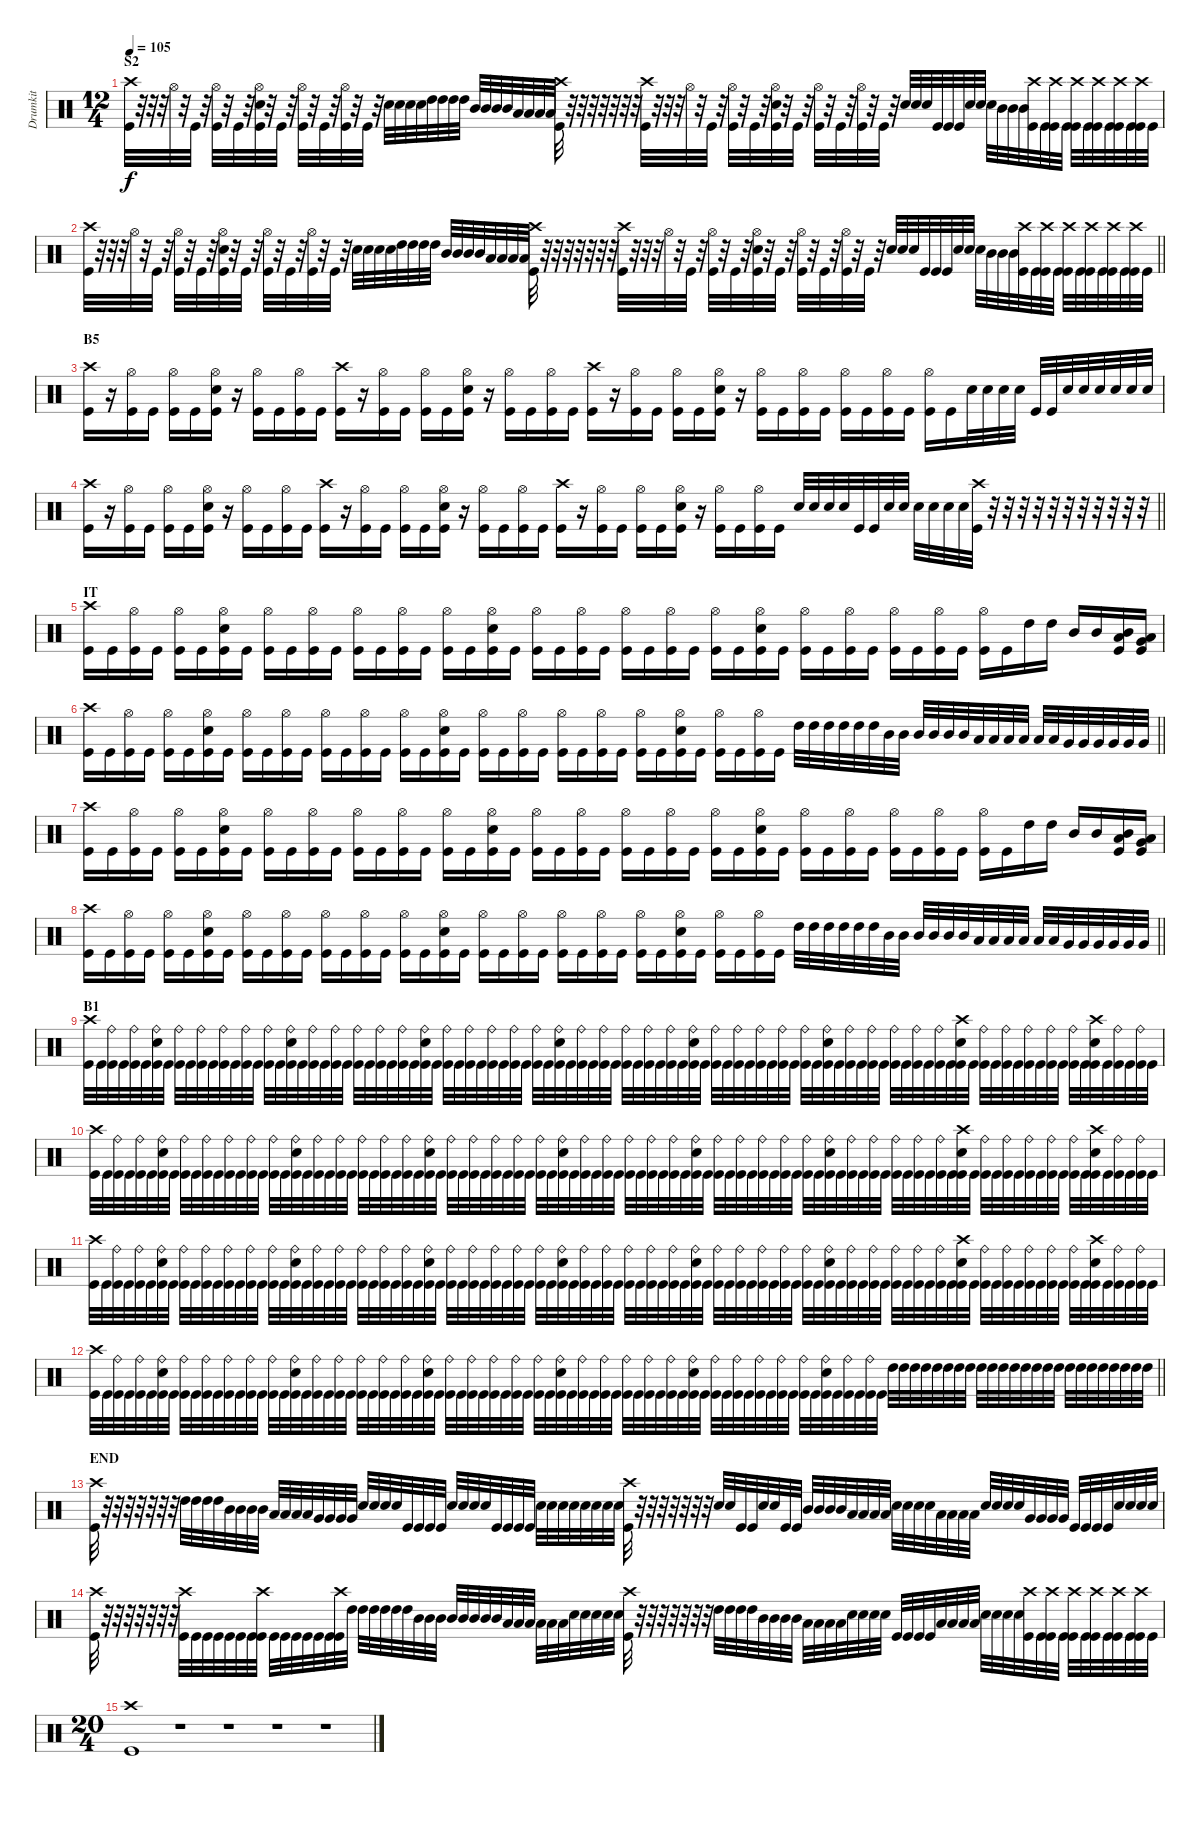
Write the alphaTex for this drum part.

\track ("Drumkit" "Drumkit") {instrument percussion}
\staff {score}
\articulation defaults
\ts (12 4)
\section ("" "S2")
\tempo 105
\clef neutral
\ks c
("Crash high (hit)" "Kick (hit)").32{dy f} r.32 r.32 r.32 "Hi-Hat (open)".32 r.32 "Kick (hit)".32 r.32 ("Hi-Hat (open)" "Kick (hit)").32 r.32 "Kick (hit)".32 r.32 ("Hi-Hat (open)" "Snare (hit) 2" "Kick (hit)").32 r.32 "Kick (hit)".32 r.32 ("Hi-Hat (open)" "Kick (hit)").32 r.32 "Kick (hit)".32 r.32 ("Hi-Hat (open)" "Kick (hit)").32 r.32 "Kick (hit)".32 r.32 "Snare (hit) 2".32 "Snare (hit) 2".32 "Snare (hit) 2".32 "Snare (hit) 2".32 "High Tom (hit)".32 "High Tom (hit)".32 "High Tom (hit)".32 "High Tom (hit)".32 "Mid Tom (hit)".32 "Mid Tom (hit)".32 "Mid Tom (hit)".32 "Mid Tom (hit)".32 "Low Tom (hit)".32 "Low Tom (hit)".32 "Low Tom (hit)".32 "Low Tom (hit)".32 ("Crash high (hit)" "Kick (hit)").32 r.32 r.32 r.32 r.32 r.32 r.32 r.32 ("Crash high (hit)" "Kick (hit)").32 r.32 r.32 r.32 "Hi-Hat (open)".32 r.32 "Kick (hit)".32 r.32 ("Hi-Hat (open)" "Kick (hit)").32 r.32 "Kick (hit)".32 r.32 ("Hi-Hat (open)" "Snare (hit) 2" "Kick (hit)").32 r.32 "Kick (hit)".32 r.32 ("Hi-Hat (open)" "Kick (hit)").32 r.32 "Kick (hit)".32 r.32 ("Hi-Hat (open)" "Kick (hit)").32 r.32 "Kick (hit)".32 r.32 "Snare (hit) 2".32 "Snare (hit) 2".32 "Snare (hit) 2".32 "Kick (hit)".32 "Kick (hit)".32 "Kick (hit)".32 "Snare (hit) 2".32 "Snare (hit) 2".32 "Snare (hit) 2".32 "Mid Tom (hit)".32 "Mid Tom (hit)".32 "Mid Tom (hit)".32 ("Crash high (hit)" "Kick (hit)").32 "Kick (hit)".32 ("Crash high (hit)" "Kick (hit)").32 "Kick (hit)".32 ("Crash high (hit)" "Kick (hit)").32 "Kick (hit)".32 ("Crash high (hit)" "Kick (hit)").32 "Kick (hit)".32 ("Crash high (hit)" "Kick (hit)").32 "Kick (hit)".32 ("Crash high (hit)" "Kick (hit)").32 "Kick (hit)".32 |
\barLineRight lightlight
("Crash high (hit)" "Kick (hit)").32 r.32 r.32 r.32 "Hi-Hat (open)".32 r.32 "Kick (hit)".32 r.32 ("Hi-Hat (open)" "Kick (hit)").32 r.32 "Kick (hit)".32 r.32 ("Hi-Hat (open)" "Snare (hit) 2" "Kick (hit)").32 r.32 "Kick (hit)".32 r.32 ("Hi-Hat (open)" "Kick (hit)").32 r.32 "Kick (hit)".32 r.32 ("Hi-Hat (open)" "Kick (hit)").32 r.32 "Kick (hit)".32 r.32 "Snare (hit) 2".32 "Snare (hit) 2".32 "Snare (hit) 2".32 "Snare (hit) 2".32 "High Tom (hit)".32 "High Tom (hit)".32 "High Tom (hit)".32 "High Tom (hit)".32 "Mid Tom (hit)".32 "Mid Tom (hit)".32 "Mid Tom (hit)".32 "Mid Tom (hit)".32 "Low Tom (hit)".32 "Low Tom (hit)".32 "Low Tom (hit)".32 "Low Tom (hit)".32 ("Crash high (hit)" "Kick (hit)").32 r.32 r.32 r.32 r.32 r.32 r.32 r.32 ("Crash high (hit)" "Kick (hit)").32 r.32 r.32 r.32 "Hi-Hat (open)".32 r.32 "Kick (hit)".32 r.32 ("Hi-Hat (open)" "Kick (hit)").32 r.32 "Kick (hit)".32 r.32 ("Hi-Hat (open)" "Snare (hit) 2" "Kick (hit)").32 r.32 "Kick (hit)".32 r.32 ("Hi-Hat (open)" "Kick (hit)").32 r.32 "Kick (hit)".32 r.32 ("Hi-Hat (open)" "Kick (hit)").32 r.32 "Kick (hit)".32 r.32 "Snare (hit) 2".32 "Snare (hit) 2".32 "Snare (hit) 2".32 "Kick (hit)".32 "Kick (hit)".32 "Kick (hit)".32 "Snare (hit) 2".32 "Snare (hit) 2".32 "Snare (hit) 2".32 "Mid Tom (hit)".32 "Mid Tom (hit)".32 "Mid Tom (hit)".32 ("Crash high (hit)" "Kick (hit)").32 "Kick (hit)".32 ("Crash high (hit)" "Kick (hit)").32 "Kick (hit)".32 ("Crash high (hit)" "Kick (hit)").32 "Kick (hit)".32 ("Crash high (hit)" "Kick (hit)").32 "Kick (hit)".32 ("Crash high (hit)" "Kick (hit)").32 "Kick (hit)".32 ("Crash high (hit)" "Kick (hit)").32 "Kick (hit)".32 |
\section ("" "B5")
("Crash high (hit)" "Kick (hit)").16 r.16 ("Hi-Hat (open)" "Kick (hit)").16 "Kick (hit)".16 ("Hi-Hat (open)" "Kick (hit)").16 "Kick (hit)".16 ("Hi-Hat (open)" "Snare (hit) 2" "Kick (hit)").16 r.16 ("Hi-Hat (open)" "Kick (hit)").16 "Kick (hit)".16 ("Hi-Hat (open)" "Kick (hit)").16 "Kick (hit)".16 ("Crash high (hit)" "Kick (hit)").16 r.16 ("Hi-Hat (open)" "Kick (hit)").16 "Kick (hit)".16 ("Hi-Hat (open)" "Kick (hit)").16 "Kick (hit)".16 ("Hi-Hat (open)" "Snare (hit) 2" "Kick (hit)").16 r.16 ("Hi-Hat (open)" "Kick (hit)").16 "Kick (hit)".16 ("Hi-Hat (open)" "Kick (hit)").16 "Kick (hit)".16 ("Crash high (hit)" "Kick (hit)").16 r.16 ("Hi-Hat (open)" "Kick (hit)").16 "Kick (hit)".16 ("Hi-Hat (open)" "Kick (hit)").16 "Kick (hit)".16 ("Hi-Hat (open)" "Snare (hit) 2" "Kick (hit)").16 r.16 ("Hi-Hat (open)" "Kick (hit)").16 "Kick (hit)".16 ("Hi-Hat (open)" "Kick (hit)").16 "Kick (hit)".16 ("Hi-Hat (open)" "Kick (hit)").16 "Kick (hit)".16 ("Hi-Hat (open)" "Kick (hit)").16 "Kick (hit)".16 ("Hi-Hat (open)" "Kick (hit)").16 "Kick (hit)".16 "Snare (hit) 2".32 "Snare (hit) 2".32 "Snare (hit) 2".32 "Snare (hit) 2".32 "Kick (hit)".32 "Kick (hit)".32 "Snare (hit) 2".32 "Snare (hit) 2".32 "Snare (hit) 2".32 "Snare (hit) 2".32 "Snare (hit) 2".32 "Snare (hit) 2".32 |
\barLineRight lightlight
("Crash high (hit)" "Kick (hit)").16 r.16 ("Hi-Hat (open)" "Kick (hit)").16 "Kick (hit)".16 ("Hi-Hat (open)" "Kick (hit)").16 "Kick (hit)".16 ("Hi-Hat (open)" "Snare (hit) 2" "Kick (hit)").16 r.16 ("Hi-Hat (open)" "Kick (hit)").16 "Kick (hit)".16 ("Hi-Hat (open)" "Kick (hit)").16 "Kick (hit)".16 ("Crash high (hit)" "Kick (hit)").16 r.16 ("Hi-Hat (open)" "Kick (hit)").16 "Kick (hit)".16 ("Hi-Hat (open)" "Kick (hit)").16 "Kick (hit)".16 ("Hi-Hat (open)" "Snare (hit) 2" "Kick (hit)").16 r.16 ("Hi-Hat (open)" "Kick (hit)").16 "Kick (hit)".16 ("Hi-Hat (open)" "Kick (hit)").16 "Kick (hit)".16 ("Crash high (hit)" "Kick (hit)").16 r.16 ("Hi-Hat (open)" "Kick (hit)").16 "Kick (hit)".16 ("Hi-Hat (open)" "Kick (hit)").16 "Kick (hit)".16 ("Hi-Hat (open)" "Snare (hit) 2" "Kick (hit)").16 r.16 ("Hi-Hat (open)" "Kick (hit)").16 "Kick (hit)".16 ("Hi-Hat (open)" "Kick (hit)").16 "Kick (hit)".16 "Snare (hit) 2".32 "Snare (hit) 2".32 "Snare (hit) 2".32 "Snare (hit) 2".32 "Kick (hit)".32 "Kick (hit)".32 "Snare (hit) 2".32 "Snare (hit) 2".32 "Snare (hit) 2".32 "Snare (hit) 2".32 "Snare (hit) 2".32 "Snare (hit) 2".32 ("Crash high (hit)" "Kick (hit)").32 r.32 r.32 r.32 r.32 r.32 r.32 r.32 r.32 r.32 r.32 r.32 |
\section ("" "IT")
("Crash high (hit)" "Kick (hit)").16 "Kick (hit)".16 ("Hi-Hat (open)" "Kick (hit)").16 "Kick (hit)".16 ("Hi-Hat (open)" "Kick (hit)").16 "Kick (hit)".16 ("Hi-Hat (open)" "Snare (hit) 2" "Kick (hit)").16 "Kick (hit)".16 ("Hi-Hat (open)" "Kick (hit)").16 "Kick (hit)".16 ("Hi-Hat (open)" "Kick (hit)").16 "Kick (hit)".16 ("Hi-Hat (open)" "Kick (hit)").16 "Kick (hit)".16 ("Hi-Hat (open)" "Kick (hit)").16 "Kick (hit)".16 ("Hi-Hat (open)" "Kick (hit)").16 "Kick (hit)".16 ("Hi-Hat (open)" "Snare (hit) 2" "Kick (hit)").16 "Kick (hit)".16 ("Hi-Hat (open)" "Kick (hit)").16 "Kick (hit)".16 ("Hi-Hat (open)" "Kick (hit)").16 "Kick (hit)".16 ("Hi-Hat (open)" "Kick (hit)").16 "Kick (hit)".16 ("Hi-Hat (open)" "Kick (hit)").16 "Kick (hit)".16 ("Hi-Hat (open)" "Kick (hit)").16 "Kick (hit)".16 ("Hi-Hat (open)" "Snare (hit) 2" "Kick (hit)").16 "Kick (hit)".16 ("Hi-Hat (open)" "Kick (hit)").16 "Kick (hit)".16 ("Hi-Hat (open)" "Kick (hit)").16 "Kick (hit)".16 ("Hi-Hat (open)" "Kick (hit)").16 "Kick (hit)".16 ("Hi-Hat (open)" "Kick (hit)").16 "Kick (hit)".16 ("Hi-Hat (open)" "Kick (hit)").16 "Kick (hit)".16 "High Tom (hit)".16 "High Tom (hit)".16 "Mid Tom (hit)".16 "Mid Tom (hit)".16 ("Mid Tom (hit)" "Low Tom (hit)" "Kick (hit)").16 ("Low Tom (hit)" "Very Low Tom (hit)" "Kick (hit)").16 |
\barLineRight lightlight
("Crash high (hit)" "Kick (hit)").16 "Kick (hit)".16 ("Hi-Hat (open)" "Kick (hit)").16 "Kick (hit)".16 ("Hi-Hat (open)" "Kick (hit)").16 "Kick (hit)".16 ("Hi-Hat (open)" "Snare (hit) 2" "Kick (hit)").16 "Kick (hit)".16 ("Hi-Hat (open)" "Kick (hit)").16 "Kick (hit)".16 ("Hi-Hat (open)" "Kick (hit)").16 "Kick (hit)".16 ("Hi-Hat (open)" "Kick (hit)").16 "Kick (hit)".16 ("Hi-Hat (open)" "Kick (hit)").16 "Kick (hit)".16 ("Hi-Hat (open)" "Kick (hit)").16 "Kick (hit)".16 ("Hi-Hat (open)" "Snare (hit) 2" "Kick (hit)").16 "Kick (hit)".16 ("Hi-Hat (open)" "Kick (hit)").16 "Kick (hit)".16 ("Hi-Hat (open)" "Kick (hit)").16 "Kick (hit)".16 ("Hi-Hat (open)" "Kick (hit)").16 "Kick (hit)".16 ("Hi-Hat (open)" "Kick (hit)").16 "Kick (hit)".16 ("Hi-Hat (open)" "Kick (hit)").16 "Kick (hit)".16 ("Hi-Hat (open)" "Snare (hit) 2" "Kick (hit)").16 "Kick (hit)".16 ("Hi-Hat (open)" "Kick (hit)").16 "Kick (hit)".16 ("Hi-Hat (open)" "Kick (hit)").16 "Kick (hit)".16 "High Tom (hit)".32 "High Tom (hit)".32 "High Tom (hit)".32 "High Tom (hit)".32 "High Tom (hit)".32 "High Tom (hit)".32 "Mid Tom (hit)".32 "Mid Tom (hit)".32 "Mid Tom (hit)".32 "Mid Tom (hit)".32 "Mid Tom (hit)".32 "Mid Tom (hit)".32 "Low Tom (hit)".32 "Low Tom (hit)".32 "Low Tom (hit)".32 "Low Tom (hit)".32 "Low Tom (hit)".32 "Low Tom (hit)".32 "Very Low Tom (hit)".32 "Very Low Tom (hit)".32 "Very Low Tom (hit)".32 "Very Low Tom (hit)".32 "Very Low Tom (hit)".32 "Very Low Tom (hit)".32 |
("Crash high (hit)" "Kick (hit)").16 "Kick (hit)".16 ("Hi-Hat (open)" "Kick (hit)").16 "Kick (hit)".16 ("Hi-Hat (open)" "Kick (hit)").16 "Kick (hit)".16 ("Hi-Hat (open)" "Snare (hit) 2" "Kick (hit)").16 "Kick (hit)".16 ("Hi-Hat (open)" "Kick (hit)").16 "Kick (hit)".16 ("Hi-Hat (open)" "Kick (hit)").16 "Kick (hit)".16 ("Hi-Hat (open)" "Kick (hit)").16 "Kick (hit)".16 ("Hi-Hat (open)" "Kick (hit)").16 "Kick (hit)".16 ("Hi-Hat (open)" "Kick (hit)").16 "Kick (hit)".16 ("Hi-Hat (open)" "Snare (hit) 2" "Kick (hit)").16 "Kick (hit)".16 ("Hi-Hat (open)" "Kick (hit)").16 "Kick (hit)".16 ("Hi-Hat (open)" "Kick (hit)").16 "Kick (hit)".16 ("Hi-Hat (open)" "Kick (hit)").16 "Kick (hit)".16 ("Hi-Hat (open)" "Kick (hit)").16 "Kick (hit)".16 ("Hi-Hat (open)" "Kick (hit)").16 "Kick (hit)".16 ("Hi-Hat (open)" "Snare (hit) 2" "Kick (hit)").16 "Kick (hit)".16 ("Hi-Hat (open)" "Kick (hit)").16 "Kick (hit)".16 ("Hi-Hat (open)" "Kick (hit)").16 "Kick (hit)".16 ("Hi-Hat (open)" "Kick (hit)").16 "Kick (hit)".16 ("Hi-Hat (open)" "Kick (hit)").16 "Kick (hit)".16 ("Hi-Hat (open)" "Kick (hit)").16 "Kick (hit)".16 "High Tom (hit)".16 "High Tom (hit)".16 "Mid Tom (hit)".16 "Mid Tom (hit)".16 ("Mid Tom (hit)" "Low Tom (hit)" "Kick (hit)").16 ("Low Tom (hit)" "Very Low Tom (hit)" "Kick (hit)").16 |
\barLineRight lightlight
("Crash high (hit)" "Kick (hit)").16 "Kick (hit)".16 ("Hi-Hat (open)" "Kick (hit)").16 "Kick (hit)".16 ("Hi-Hat (open)" "Kick (hit)").16 "Kick (hit)".16 ("Hi-Hat (open)" "Snare (hit) 2" "Kick (hit)").16 "Kick (hit)".16 ("Hi-Hat (open)" "Kick (hit)").16 "Kick (hit)".16 ("Hi-Hat (open)" "Kick (hit)").16 "Kick (hit)".16 ("Hi-Hat (open)" "Kick (hit)").16 "Kick (hit)".16 ("Hi-Hat (open)" "Kick (hit)").16 "Kick (hit)".16 ("Hi-Hat (open)" "Kick (hit)").16 "Kick (hit)".16 ("Hi-Hat (open)" "Snare (hit) 2" "Kick (hit)").16 "Kick (hit)".16 ("Hi-Hat (open)" "Kick (hit)").16 "Kick (hit)".16 ("Hi-Hat (open)" "Kick (hit)").16 "Kick (hit)".16 ("Hi-Hat (open)" "Kick (hit)").16 "Kick (hit)".16 ("Hi-Hat (open)" "Kick (hit)").16 "Kick (hit)".16 ("Hi-Hat (open)" "Kick (hit)").16 "Kick (hit)".16 ("Hi-Hat (open)" "Snare (hit) 2" "Kick (hit)").16 "Kick (hit)".16 ("Hi-Hat (open)" "Kick (hit)").16 "Kick (hit)".16 ("Hi-Hat (open)" "Kick (hit)").16 "Kick (hit)".16 "High Tom (hit)".32 "High Tom (hit)".32 "High Tom (hit)".32 "High Tom (hit)".32 "High Tom (hit)".32 "High Tom (hit)".32 "Mid Tom (hit)".32 "Mid Tom (hit)".32 "Mid Tom (hit)".32 "Mid Tom (hit)".32 "Mid Tom (hit)".32 "Mid Tom (hit)".32 "Low Tom (hit)".32 "Low Tom (hit)".32 "Low Tom (hit)".32 "Low Tom (hit)".32 "Low Tom (hit)".32 "Low Tom (hit)".32 "Very Low Tom (hit)".32 "Very Low Tom (hit)".32 "Very Low Tom (hit)".32 "Very Low Tom (hit)".32 "Very Low Tom (hit)".32 "Very Low Tom (hit)".32 |
\section ("" "B1")
("Crash high (hit)" "Kick (hit)").32 "Kick (hit)".32 ("Ride (bell)" "Kick (hit)").32 "Kick (hit)".32 ("Ride (bell)" "Kick (hit)").32 "Kick (hit)".32 ("Ride (bell)" "Snare (hit) 2" "Kick (hit)").32 "Kick (hit)".32 ("Ride (bell)" "Kick (hit)").32 "Kick (hit)".32 ("Ride (bell)" "Kick (hit)").32 "Kick (hit)".32 ("Ride (bell)" "Kick (hit)").32 "Kick (hit)".32 ("Ride (bell)" "Kick (hit)").32 "Kick (hit)".32 ("Ride (bell)" "Kick (hit)").32 "Kick (hit)".32 ("Ride (bell)" "Snare (hit) 2" "Kick (hit)").32 "Kick (hit)".32 ("Ride (bell)" "Kick (hit)").32 "Kick (hit)".32 ("Ride (bell)" "Kick (hit)").32 "Kick (hit)".32 ("Ride (bell)" "Kick (hit)").32 "Kick (hit)".32 ("Ride (bell)" "Kick (hit)").32 "Kick (hit)".32 ("Ride (bell)" "Kick (hit)").32 "Kick (hit)".32 ("Ride (bell)" "Snare (hit) 2" "Kick (hit)").32 "Kick (hit)".32 ("Ride (bell)" "Kick (hit)").32 "Kick (hit)".32 ("Ride (bell)" "Kick (hit)").32 "Kick (hit)".32 ("Ride (bell)" "Kick (hit)").32 "Kick (hit)".32 ("Ride (bell)" "Kick (hit)").32 "Kick (hit)".32 ("Ride (bell)" "Kick (hit)").32 "Kick (hit)".32 ("Ride (bell)" "Snare (hit) 2" "Kick (hit)").32 "Kick (hit)".32 ("Ride (bell)" "Kick (hit)").32 "Kick (hit)".32 ("Ride (bell)" "Kick (hit)").32 "Kick (hit)".32 ("Ride (bell)" "Kick (hit)").32 "Kick (hit)".32 ("Ride (bell)" "Kick (hit)").32 "Kick (hit)".32 ("Ride (bell)" "Kick (hit)").32 "Kick (hit)".32 ("Ride (bell)" "Snare (hit) 2" "Kick (hit)").32 "Kick (hit)".32 ("Ride (bell)" "Kick (hit)").32 "Kick (hit)".32 ("Ride (bell)" "Kick (hit)").32 "Kick (hit)".32 ("Ride (bell)" "Kick (hit)").32 "Kick (hit)".32 ("Ride (bell)" "Kick (hit)").32 "Kick (hit)".32 ("Ride (bell)" "Kick (hit)").32 "Kick (hit)".32 ("Ride (bell)" "Snare (hit) 2" "Kick (hit)").32 "Kick (hit)".32 ("Ride (bell)" "Kick (hit)").32 "Kick (hit)".32 ("Ride (bell)" "Kick (hit)").32 "Kick (hit)".32 ("Ride (bell)" "Kick (hit)").32 "Kick (hit)".32 ("Ride (bell)" "Kick (hit)").32 "Kick (hit)".32 ("Ride (bell)" "Kick (hit)").32 "Kick (hit)".32 ("Crash high (hit)" "Snare (hit) 2" "Kick (hit)").32 "Kick (hit)".32 ("Ride (bell)" "Kick (hit)").32 "Kick (hit)".32 ("Ride (bell)" "Kick (hit)").32 "Kick (hit)".32 ("Ride (bell)" "Kick (hit)").32 "Kick (hit)".32 ("Ride (bell)" "Kick (hit)").32 "Kick (hit)".32 ("Ride (bell)" "Kick (hit)").32 "Kick (hit)".32 ("Crash high (hit)" "Snare (hit) 2" "Kick (hit)").32 "Kick (hit)".32 ("Ride (bell)" "Kick (hit)").32 "Kick (hit)".32 ("Ride (bell)" "Kick (hit)").32 "Kick (hit)".32 |
("Crash high (hit)" "Kick (hit)").32 "Kick (hit)".32 ("Ride (bell)" "Kick (hit)").32 "Kick (hit)".32 ("Ride (bell)" "Kick (hit)").32 "Kick (hit)".32 ("Ride (bell)" "Snare (hit) 2" "Kick (hit)").32 "Kick (hit)".32 ("Ride (bell)" "Kick (hit)").32 "Kick (hit)".32 ("Ride (bell)" "Kick (hit)").32 "Kick (hit)".32 ("Ride (bell)" "Kick (hit)").32 "Kick (hit)".32 ("Ride (bell)" "Kick (hit)").32 "Kick (hit)".32 ("Ride (bell)" "Kick (hit)").32 "Kick (hit)".32 ("Ride (bell)" "Snare (hit) 2" "Kick (hit)").32 "Kick (hit)".32 ("Ride (bell)" "Kick (hit)").32 "Kick (hit)".32 ("Ride (bell)" "Kick (hit)").32 "Kick (hit)".32 ("Ride (bell)" "Kick (hit)").32 "Kick (hit)".32 ("Ride (bell)" "Kick (hit)").32 "Kick (hit)".32 ("Ride (bell)" "Kick (hit)").32 "Kick (hit)".32 ("Ride (bell)" "Snare (hit) 2" "Kick (hit)").32 "Kick (hit)".32 ("Ride (bell)" "Kick (hit)").32 "Kick (hit)".32 ("Ride (bell)" "Kick (hit)").32 "Kick (hit)".32 ("Ride (bell)" "Kick (hit)").32 "Kick (hit)".32 ("Ride (bell)" "Kick (hit)").32 "Kick (hit)".32 ("Ride (bell)" "Kick (hit)").32 "Kick (hit)".32 ("Ride (bell)" "Snare (hit) 2" "Kick (hit)").32 "Kick (hit)".32 ("Ride (bell)" "Kick (hit)").32 "Kick (hit)".32 ("Ride (bell)" "Kick (hit)").32 "Kick (hit)".32 ("Ride (bell)" "Kick (hit)").32 "Kick (hit)".32 ("Ride (bell)" "Kick (hit)").32 "Kick (hit)".32 ("Ride (bell)" "Kick (hit)").32 "Kick (hit)".32 ("Ride (bell)" "Snare (hit) 2" "Kick (hit)").32 "Kick (hit)".32 ("Ride (bell)" "Kick (hit)").32 "Kick (hit)".32 ("Ride (bell)" "Kick (hit)").32 "Kick (hit)".32 ("Ride (bell)" "Kick (hit)").32 "Kick (hit)".32 ("Ride (bell)" "Kick (hit)").32 "Kick (hit)".32 ("Ride (bell)" "Kick (hit)").32 "Kick (hit)".32 ("Ride (bell)" "Snare (hit) 2" "Kick (hit)").32 "Kick (hit)".32 ("Ride (bell)" "Kick (hit)").32 "Kick (hit)".32 ("Ride (bell)" "Kick (hit)").32 "Kick (hit)".32 ("Ride (bell)" "Kick (hit)").32 "Kick (hit)".32 ("Ride (bell)" "Kick (hit)").32 "Kick (hit)".32 ("Ride (bell)" "Kick (hit)").32 "Kick (hit)".32 ("Crash high (hit)" "Snare (hit) 2" "Kick (hit)").32 "Kick (hit)".32 ("Ride (bell)" "Kick (hit)").32 "Kick (hit)".32 ("Ride (bell)" "Kick (hit)").32 "Kick (hit)".32 ("Ride (bell)" "Kick (hit)").32 "Kick (hit)".32 ("Ride (bell)" "Kick (hit)").32 "Kick (hit)".32 ("Ride (bell)" "Kick (hit)").32 "Kick (hit)".32 ("Crash high (hit)" "Snare (hit) 2" "Kick (hit)").32 "Kick (hit)".32 ("Ride (bell)" "Kick (hit)").32 "Kick (hit)".32 ("Ride (bell)" "Kick (hit)").32 "Kick (hit)".32 |
("Crash high (hit)" "Kick (hit)").32 "Kick (hit)".32 ("Ride (bell)" "Kick (hit)").32 "Kick (hit)".32 ("Ride (bell)" "Kick (hit)").32 "Kick (hit)".32 ("Ride (bell)" "Snare (hit) 2" "Kick (hit)").32 "Kick (hit)".32 ("Ride (bell)" "Kick (hit)").32 "Kick (hit)".32 ("Ride (bell)" "Kick (hit)").32 "Kick (hit)".32 ("Ride (bell)" "Kick (hit)").32 "Kick (hit)".32 ("Ride (bell)" "Kick (hit)").32 "Kick (hit)".32 ("Ride (bell)" "Kick (hit)").32 "Kick (hit)".32 ("Ride (bell)" "Snare (hit) 2" "Kick (hit)").32 "Kick (hit)".32 ("Ride (bell)" "Kick (hit)").32 "Kick (hit)".32 ("Ride (bell)" "Kick (hit)").32 "Kick (hit)".32 ("Ride (bell)" "Kick (hit)").32 "Kick (hit)".32 ("Ride (bell)" "Kick (hit)").32 "Kick (hit)".32 ("Ride (bell)" "Kick (hit)").32 "Kick (hit)".32 ("Ride (bell)" "Snare (hit) 2" "Kick (hit)").32 "Kick (hit)".32 ("Ride (bell)" "Kick (hit)").32 "Kick (hit)".32 ("Ride (bell)" "Kick (hit)").32 "Kick (hit)".32 ("Ride (bell)" "Kick (hit)").32 "Kick (hit)".32 ("Ride (bell)" "Kick (hit)").32 "Kick (hit)".32 ("Ride (bell)" "Kick (hit)").32 "Kick (hit)".32 ("Ride (bell)" "Snare (hit) 2" "Kick (hit)").32 "Kick (hit)".32 ("Ride (bell)" "Kick (hit)").32 "Kick (hit)".32 ("Ride (bell)" "Kick (hit)").32 "Kick (hit)".32 ("Ride (bell)" "Kick (hit)").32 "Kick (hit)".32 ("Ride (bell)" "Kick (hit)").32 "Kick (hit)".32 ("Ride (bell)" "Kick (hit)").32 "Kick (hit)".32 ("Ride (bell)" "Snare (hit) 2" "Kick (hit)").32 "Kick (hit)".32 ("Ride (bell)" "Kick (hit)").32 "Kick (hit)".32 ("Ride (bell)" "Kick (hit)").32 "Kick (hit)".32 ("Ride (bell)" "Kick (hit)").32 "Kick (hit)".32 ("Ride (bell)" "Kick (hit)").32 "Kick (hit)".32 ("Ride (bell)" "Kick (hit)").32 "Kick (hit)".32 ("Ride (bell)" "Snare (hit) 2" "Kick (hit)").32 "Kick (hit)".32 ("Ride (bell)" "Kick (hit)").32 "Kick (hit)".32 ("Ride (bell)" "Kick (hit)").32 "Kick (hit)".32 ("Ride (bell)" "Kick (hit)").32 "Kick (hit)".32 ("Ride (bell)" "Kick (hit)").32 "Kick (hit)".32 ("Ride (bell)" "Kick (hit)").32 "Kick (hit)".32 ("Crash high (hit)" "Snare (hit) 2" "Kick (hit)").32 "Kick (hit)".32 ("Ride (bell)" "Kick (hit)").32 "Kick (hit)".32 ("Ride (bell)" "Kick (hit)").32 "Kick (hit)".32 ("Ride (bell)" "Kick (hit)").32 "Kick (hit)".32 ("Ride (bell)" "Kick (hit)").32 "Kick (hit)".32 ("Ride (bell)" "Kick (hit)").32 "Kick (hit)".32 ("Crash high (hit)" "Snare (hit) 2" "Kick (hit)").32 "Kick (hit)".32 ("Ride (bell)" "Kick (hit)").32 "Kick (hit)".32 ("Ride (bell)" "Kick (hit)").32 "Kick (hit)".32 |
\barLineRight lightlight
("Crash high (hit)" "Kick (hit)").32 "Kick (hit)".32 ("Ride (bell)" "Kick (hit)").32 "Kick (hit)".32 ("Ride (bell)" "Kick (hit)").32 "Kick (hit)".32 ("Ride (bell)" "Snare (hit) 2" "Kick (hit)").32 "Kick (hit)".32 ("Ride (bell)" "Kick (hit)").32 "Kick (hit)".32 ("Ride (bell)" "Kick (hit)").32 "Kick (hit)".32 ("Ride (bell)" "Kick (hit)").32 "Kick (hit)".32 ("Ride (bell)" "Kick (hit)").32 "Kick (hit)".32 ("Ride (bell)" "Kick (hit)").32 "Kick (hit)".32 ("Ride (bell)" "Snare (hit) 2" "Kick (hit)").32 "Kick (hit)".32 ("Ride (bell)" "Kick (hit)").32 "Kick (hit)".32 ("Ride (bell)" "Kick (hit)").32 "Kick (hit)".32 ("Ride (bell)" "Kick (hit)").32 "Kick (hit)".32 ("Ride (bell)" "Kick (hit)").32 "Kick (hit)".32 ("Ride (bell)" "Kick (hit)").32 "Kick (hit)".32 ("Ride (bell)" "Snare (hit) 2" "Kick (hit)").32 "Kick (hit)".32 ("Ride (bell)" "Kick (hit)").32 "Kick (hit)".32 ("Ride (bell)" "Kick (hit)").32 "Kick (hit)".32 ("Ride (bell)" "Kick (hit)").32 "Kick (hit)".32 ("Ride (bell)" "Kick (hit)").32 "Kick (hit)".32 ("Ride (bell)" "Kick (hit)").32 "Kick (hit)".32 ("Ride (bell)" "Snare (hit) 2" "Kick (hit)").32 "Kick (hit)".32 ("Ride (bell)" "Kick (hit)").32 "Kick (hit)".32 ("Ride (bell)" "Kick (hit)").32 "Kick (hit)".32 ("Ride (bell)" "Kick (hit)").32 "Kick (hit)".32 ("Ride (bell)" "Kick (hit)").32 "Kick (hit)".32 ("Ride (bell)" "Kick (hit)").32 "Kick (hit)".32 ("Ride (bell)" "Snare (hit) 2" "Kick (hit)").32 "Kick (hit)".32 ("Ride (bell)" "Kick (hit)").32 "Kick (hit)".32 ("Ride (bell)" "Kick (hit)").32 "Kick (hit)".32 ("Ride (bell)" "Kick (hit)").32 "Kick (hit)".32 ("Ride (bell)" "Kick (hit)").32 "Kick (hit)".32 ("Ride (bell)" "Kick (hit)").32 "Kick (hit)".32 ("Ride (bell)" "Snare (hit) 2" "Kick (hit)").32 "Kick (hit)".32 ("Ride (bell)" "Kick (hit)").32 "Kick (hit)".32 ("Ride (bell)" "Kick (hit)").32 "Kick (hit)".32 "High Tom (hit)".32 "High Tom (hit)".32 "High Tom (hit)".32 "High Tom (hit)".32 "High Tom (hit)".32 "High Tom (hit)".32 "High Tom (hit)".32 "High Tom (hit)".32 "High Tom (hit)".32 "High Tom (hit)".32 "High Tom (hit)".32 "High Tom (hit)".32 "High Tom (hit)".32 "High Tom (hit)".32 "High Tom (hit)".32 "High Tom (hit)".32 "High Tom (hit)".32 "High Tom (hit)".32 "High Tom (hit)".32 "High Tom (hit)".32 "High Tom (hit)".32 "High Tom (hit)".32 "High Tom (hit)".32 "High Tom (hit)".32 |
\section ("" "END")
("Crash high (hit)" "Kick (hit)").32 r.32 r.32 r.32 r.32 r.32 r.32 r.32 "High Tom (hit)".32 "High Tom (hit)".32 "High Tom (hit)".32 "High Tom (hit)".32 "Mid Tom (hit)".32 "Mid Tom (hit)".32 "Mid Tom (hit)".32 "Mid Tom (hit)".32 "Low Tom (hit)".32 "Low Tom (hit)".32 "Low Tom (hit)".32 "Low Tom (hit)".32 "Very Low Tom (hit)".32 "Very Low Tom (hit)".32 "Very Low Tom (hit)".32 "Very Low Tom (hit)".32 "Snare (hit) 2".32 "Snare (hit) 2".32 "Snare (hit) 2".32 "Snare (hit) 2".32 "Kick (hit)".32 "Kick (hit)".32 "Kick (hit)".32 "Kick (hit)".32 "Snare (hit) 2".32 "Snare (hit) 2".32 "Snare (hit) 2".32 "Snare (hit) 2".32 "Kick (hit)".32 "Kick (hit)".32 "Kick (hit)".32 "Kick (hit)".32 "Snare (hit) 2".32 "Snare (hit) 2".32 "Snare (hit) 2".32 "Snare (hit) 2".32 "Snare (hit) 2".32 "Snare (hit) 2".32 "Snare (hit) 2".32 "Snare (hit) 2".32 ("Crash high (hit)" "Kick (hit)").32 r.32 r.32 r.32 r.32 r.32 r.32 r.32 "Snare (hit) 2".32 "Snare (hit) 2".32 "Kick (hit)".32 "Kick (hit)".32 "Snare (hit) 2".32 "Snare (hit) 2".32 "Kick (hit)".32 "Kick (hit)".32 "Mid Tom (hit)".32 "Mid Tom (hit)".32 "Mid Tom (hit)".32 "Mid Tom (hit)".32 "Low Tom (hit)".32 "Low Tom (hit)".32 "Low Tom (hit)".32 "Low Tom (hit)".32 "Snare (hit) 2".32 "Snare (hit) 2".32 "Snare (hit) 2".32 "Snare (hit) 2".32 "Low Tom (hit)".32 "Low Tom (hit)".32 "Low Tom (hit)".32 "Low Tom (hit)".32 "Snare (hit) 2".32 "Snare (hit) 2".32 "Snare (hit) 2".32 "Snare (hit) 2".32 "Very Low Tom (hit)".32 "Very Low Tom (hit)".32 "Very Low Tom (hit)".32 "Very Low Tom (hit)".32 "Kick (hit)".32 "Kick (hit)".32 "Kick (hit)".32 "Kick (hit)".32 "Snare (hit) 2".32 "Snare (hit) 2".32 "Snare (hit) 2".32 "Snare (hit) 2".32 |
("Crash high (hit)" "Kick (hit)").32 r.32 r.32 r.32 r.32 r.32 r.32 r.32 ("Crash high (hit)" "Kick (hit)").32 "Kick (hit)".32 "Kick (hit)".32 "Kick (hit)".32 "Kick (hit)".32 "Kick (hit)".32 "Kick (hit)".32 ("Crash high (hit)" "Kick (hit)").32 "Kick (hit)".32 "Kick (hit)".32 "Kick (hit)".32 "Kick (hit)".32 "Kick (hit)".32 "Kick (hit)".32 ("Crash high (hit)" "Kick (hit)").32 "High Tom (hit)".32 "High Tom (hit)".32 "High Tom (hit)".32 "High Tom (hit)".32 "High Tom (hit)".32 "High Tom (hit)".32 "Mid Tom (hit)".32 "Mid Tom (hit)".32 "Mid Tom (hit)".32 "Mid Tom (hit)".32 "Mid Tom (hit)".32 "Mid Tom (hit)".32 "Mid Tom (hit)".32 "Mid Tom (hit)".32 "Low Tom (hit)".32 "Low Tom (hit)".32 "Low Tom (hit)".32 "Low Tom (hit)".32 "Low Tom (hit)".32 "Low Tom (hit)".32 "Snare (hit) 2".32 "Snare (hit) 2".32 "Snare (hit) 2".32 "Snare (hit) 2".32 "Snare (hit) 2".32 ("Crash high (hit)" "Kick (hit)").32 r.32 r.32 r.32 r.32 r.32 r.32 r.32 "High Tom (hit)".32 "High Tom (hit)".32 "High Tom (hit)".32 "High Tom (hit)".32 "Mid Tom (hit)".32 "Mid Tom (hit)".32 "Mid Tom (hit)".32 "Mid Tom (hit)".32 "Low Tom (hit)".32 "Low Tom (hit)".32 "Low Tom (hit)".32 "Low Tom (hit)".32 "Snare (hit) 2".32 "Snare (hit) 2".32 "Snare (hit) 2".32 "Snare (hit) 2".32 "Kick (hit)".32 "Kick (hit)".32 "Kick (hit)".32 "Kick (hit)".32 "Low Tom (hit)".32 "Low Tom (hit)".32 "Low Tom (hit)".32 "Low Tom (hit)".32 "Snare (hit) 2".32 "Snare (hit) 2".32 "Snare (hit) 2".32 "Snare (hit) 2".32 ("Crash high (hit)" "Kick (hit)").32 "Kick (hit)".32 ("Crash high (hit)" "Kick (hit)").32 "Kick (hit)".32 ("Crash high (hit)" "Kick (hit)").32 "Kick (hit)".32 ("Crash high (hit)" "Kick (hit)").32 "Kick (hit)".32 ("Crash high (hit)" "Kick (hit)").32 "Kick (hit)".32 ("Crash high (hit)" "Kick (hit)").32 "Kick (hit)".32 |
\ts (20 4)
("Crash high (hit)" "Kick (hit)").1 r.1 r.1 r.1 r.1
